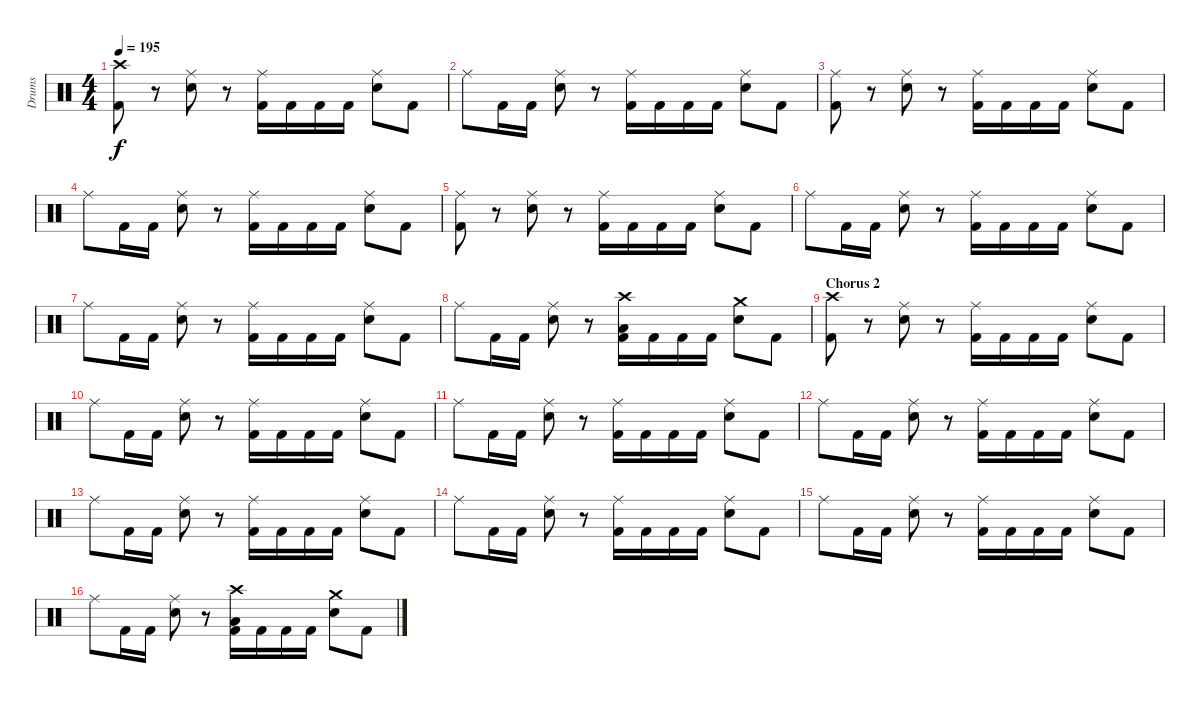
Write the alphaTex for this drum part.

\track ("Drums" "Drums") {instrument percussion}
\staff {score}
\articulation defaults
\ts (4 4)
\section ("" "")
\tempo 195
\clef neutral
\ks c
("Crash high (hit)" "Kick (hit) 2").8{dy f} r.8 ("Ride (middle)" "Snare (hit) 2").8 r.8 ("Ride (middle)" "Kick (hit) 2").16 "Kick (hit) 2".16 "Kick (hit) 2".16 "Kick (hit) 2".16 ("Ride (middle)" "Snare (hit) 2").8 "Kick (hit) 2".8 |
"Ride (middle)".8 "Kick (hit) 2".16 "Kick (hit) 2".16 ("Ride (middle)" "Snare (hit) 2").8 r.8 ("Ride (middle)" "Kick (hit) 2").16 "Kick (hit) 2".16 "Kick (hit) 2".16 "Kick (hit) 2".16 ("Ride (middle)" "Snare (hit) 2").8 "Kick (hit) 2".8 |
("Ride (middle)" "Kick (hit) 2").8 r.8 ("Ride (middle)" "Snare (hit) 2").8 r.8 ("Ride (middle)" "Kick (hit) 2").16 "Kick (hit) 2".16 "Kick (hit) 2".16 "Kick (hit) 2".16 ("Ride (middle)" "Snare (hit) 2").8 "Kick (hit) 2".8 |
"Ride (middle)".8 "Kick (hit) 2".16 "Kick (hit) 2".16 ("Ride (middle)" "Snare (hit) 2").8 r.8 ("Ride (middle)" "Kick (hit) 2").16 "Kick (hit) 2".16 "Kick (hit) 2".16 "Kick (hit) 2".16 ("Ride (middle)" "Snare (hit) 2").8 "Kick (hit) 2".8 |
("Ride (middle)" "Kick (hit) 2").8 r.8 ("Ride (middle)" "Snare (hit) 2").8 r.8 ("Ride (middle)" "Kick (hit) 2").16 "Kick (hit) 2".16 "Kick (hit) 2".16 "Kick (hit) 2".16 ("Ride (middle)" "Snare (hit) 2").8 "Kick (hit) 2".8 |
"Ride (middle)".8 "Kick (hit) 2".16 "Kick (hit) 2".16 ("Ride (middle)" "Snare (hit) 2").8 r.8 ("Ride (middle)" "Kick (hit) 2").16 "Kick (hit) 2".16 "Kick (hit) 2".16 "Kick (hit) 2".16 ("Ride (middle)" "Snare (hit) 2").8 "Kick (hit) 2".8 |
"Ride (middle)".8 "Kick (hit) 2".16 "Kick (hit) 2".16 ("Ride (middle)" "Snare (hit) 2").8 r.8 ("Ride (middle)" "Kick (hit) 2").16 "Kick (hit) 2".16 "Kick (hit) 2".16 "Kick (hit) 2".16 ("Ride (middle)" "Snare (hit) 2").8 "Kick (hit) 2".8 |
"Ride (middle)".8 "Kick (hit) 2".16 "Kick (hit) 2".16 ("Ride (middle)" "Snare (hit) 2").8 r.8 ("Crash high (hit)" "Low Floor Tom (hit)" "Kick (hit) 2").16 "Kick (hit) 2".16 "Kick (hit) 2".16 "Kick (hit) 2".16 ("Crash medium (hit)" "Snare (hit) 2").8 "Kick (hit) 2".8 |
\section ("" "Chorus 2")
("Crash high (hit)" "Kick (hit) 2").8 r.8 ("Ride (middle)" "Snare (hit) 2").8 r.8 ("Ride (middle)" "Kick (hit) 2").16 "Kick (hit) 2".16 "Kick (hit) 2".16 "Kick (hit) 2".16 ("Ride (middle)" "Snare (hit) 2").8 "Kick (hit) 2".8 |
"Ride (middle)".8 "Kick (hit) 2".16 "Kick (hit) 2".16 ("Ride (middle)" "Snare (hit) 2").8 r.8 ("Ride (middle)" "Kick (hit) 2").16 "Kick (hit) 2".16 "Kick (hit) 2".16 "Kick (hit) 2".16 ("Ride (middle)" "Snare (hit) 2").8 "Kick (hit) 2".8 |
"Ride (middle)".8 "Kick (hit) 2".16 "Kick (hit) 2".16 ("Ride (middle)" "Snare (hit) 2").8 r.8 ("Ride (middle)" "Kick (hit) 2").16 "Kick (hit) 2".16 "Kick (hit) 2".16 "Kick (hit) 2".16 ("Ride (middle)" "Snare (hit) 2").8 "Kick (hit) 2".8 |
"Ride (middle)".8 "Kick (hit) 2".16 "Kick (hit) 2".16 ("Ride (middle)" "Snare (hit) 2").8 r.8 ("Ride (middle)" "Kick (hit) 2").16 "Kick (hit) 2".16 "Kick (hit) 2".16 "Kick (hit) 2".16 ("Ride (middle)" "Snare (hit) 2").8 "Kick (hit) 2".8 |
"Ride (middle)".8 "Kick (hit) 2".16 "Kick (hit) 2".16 ("Ride (middle)" "Snare (hit) 2").8 r.8 ("Ride (middle)" "Kick (hit) 2").16 "Kick (hit) 2".16 "Kick (hit) 2".16 "Kick (hit) 2".16 ("Ride (middle)" "Snare (hit) 2").8 "Kick (hit) 2".8 |
"Ride (middle)".8 "Kick (hit) 2".16 "Kick (hit) 2".16 ("Ride (middle)" "Snare (hit) 2").8 r.8 ("Ride (middle)" "Kick (hit) 2").16 "Kick (hit) 2".16 "Kick (hit) 2".16 "Kick (hit) 2".16 ("Ride (middle)" "Snare (hit) 2").8 "Kick (hit) 2".8 |
"Ride (middle)".8 "Kick (hit) 2".16 "Kick (hit) 2".16 ("Ride (middle)" "Snare (hit) 2").8 r.8 ("Ride (middle)" "Kick (hit) 2").16 "Kick (hit) 2".16 "Kick (hit) 2".16 "Kick (hit) 2".16 ("Ride (middle)" "Snare (hit) 2").8 "Kick (hit) 2".8 |
"Ride (middle)".8 "Kick (hit) 2".16 "Kick (hit) 2".16 ("Ride (middle)" "Snare (hit) 2").8 r.8 ("Crash high (hit)" "Low Floor Tom (hit)" "Kick (hit) 2").16 "Kick (hit) 2".16 "Kick (hit) 2".16 "Kick (hit) 2".16 ("Crash medium (hit)" "Snare (hit) 2").8 "Kick (hit) 2".8
